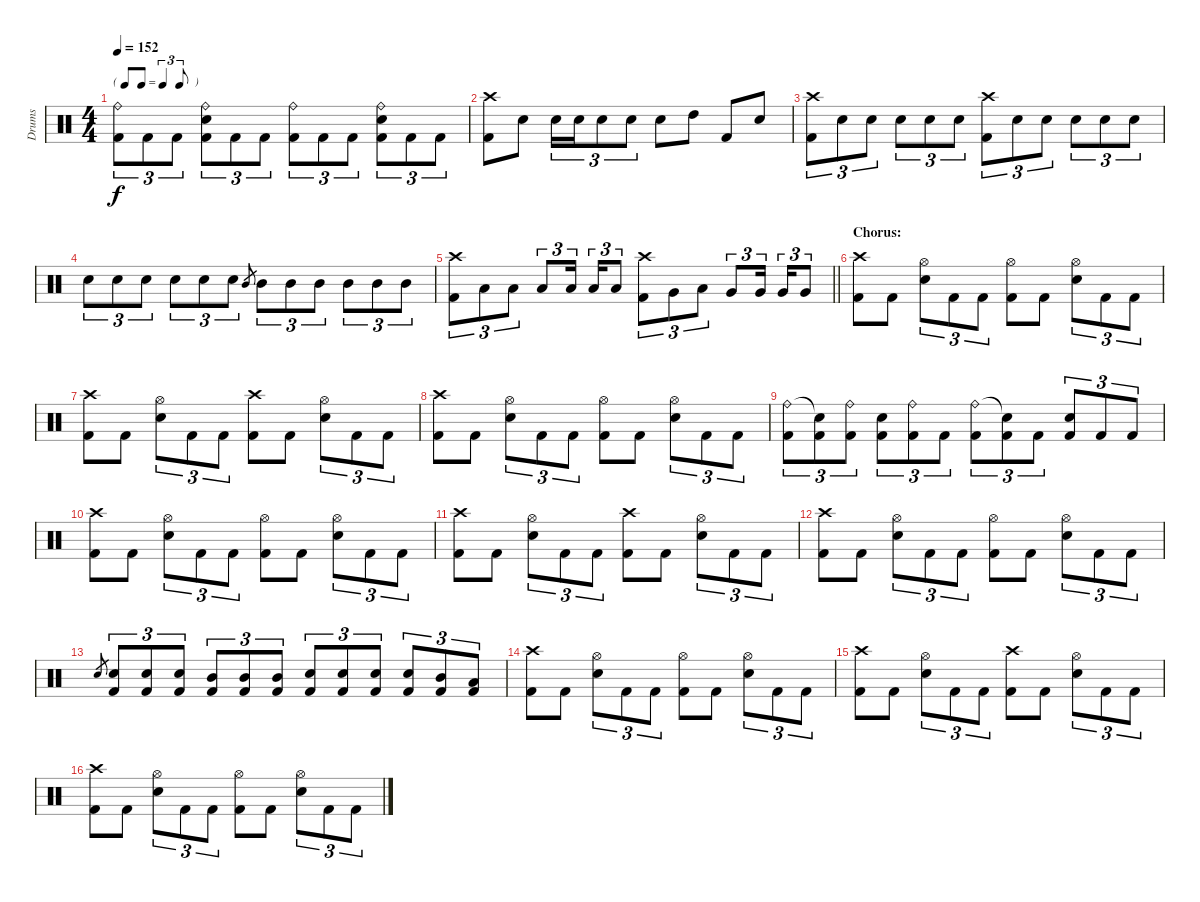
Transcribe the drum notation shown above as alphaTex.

\track ("Drums" "Drums") {instrument percussion}
\staff {score}
\articulation defaults
\ts (4 4)
\tf triplet8th
\tempo 152
\clef neutral
\ks c
("Ride (bell)" "Kick (hit) 2").8{tu (3 2) dy f} "Kick (hit) 2".8{tu (3 2)} "Kick (hit) 2".8{tu (3 2)} ("Ride (bell)" "Snare (hit) 2" "Kick (hit) 2").8{tu (3 2)} "Kick (hit) 2".8{tu (3 2)} "Kick (hit) 2".8{tu (3 2)} ("Ride (bell)" "Kick (hit) 2").8{tu (3 2)} "Kick (hit) 2".8{tu (3 2)} "Kick (hit) 2".8{tu (3 2)} ("Ride (bell)" "Snare (hit) 2" "Kick (hit) 2").8{tu (3 2)} "Kick (hit) 2".8{tu (3 2)} "Kick (hit) 2".8{tu (3 2)} |
("Crash high (hit)" "Kick (hit) 2").8 "Snare (hit) 2".8 "Snare (hit) 2".16{tu (3 2)} "Snare (hit) 2".16{tu (3 2)} "Snare (hit) 2".8{tu (3 2)} "Snare (hit) 2".8{tu (3 2)} "Snare (hit) 2".8 "High Tom (hit)".8 "Kick (hit) 2".8 "Snare (hit) 2".8 |
("Crash high (hit)" "Kick (hit) 2").8{tu (3 2)} "Snare (hit) 2".8{tu (3 2)} "Snare (hit) 2".8{tu (3 2)} "Snare (hit) 2".8{tu (3 2)} "Snare (hit) 2".8{tu (3 2)} "Snare (hit) 2".8{tu (3 2)} ("Crash high (hit)" "Kick (hit) 2").8{tu (3 2)} "Snare (hit) 2".8{tu (3 2)} "Snare (hit) 2".8{tu (3 2)} "Snare (hit) 2".8{tu (3 2)} "Snare (hit) 2".8{tu (3 2)} "Snare (hit) 2".8{tu (3 2)} |
"Snare (hit) 2".8{tu (3 2)} "Snare (hit) 2".8{tu (3 2)} "Snare (hit) 2".8{tu (3 2)} "Snare (hit) 2".8{tu (3 2)} "Snare (hit) 2".8{tu (3 2)} "Snare (hit) 2".8{tu (3 2)} "Mid Tom (hit)".8{gr} "Mid Tom (hit)".8{tu (3 2)} "Mid Tom (hit)".8{tu (3 2)} "Mid Tom (hit)".8{tu (3 2)} "Mid Tom (hit)".8{tu (3 2)} "Mid Tom (hit)".8{tu (3 2)} "Mid Tom (hit)".8{tu (3 2)} |
\barLineRight lightlight
("Crash high (hit)" "Kick (hit) 2").8{tu (3 2)} "Low Tom (hit)".8{tu (3 2)} "Low Tom (hit)".8{tu (3 2)} "Low Tom (hit)".8{tu (3 2)} "Low Tom (hit)".16{tu (3 2) beam splitsecondary} "Low Tom (hit)".16{tu (3 2)} "Low Tom (hit)".8{tu (3 2)} ("Crash high (hit)" "Kick (hit) 2").8{tu (3 2)} "Very Low Tom (hit)".8{tu (3 2)} "Low Tom (hit)".8{tu (3 2)} "Very Low Tom (hit)".8{tu (3 2)} "Very Low Tom (hit)".16{tu (3 2) beam splitsecondary} "Very Low Tom (hit)".16{tu (3 2)} "Very Low Tom (hit)".8{tu (3 2)} |
\section ("" "Chorus:")
("Crash high (hit)" "Kick (hit) 2").8 "Kick (hit) 2".8 ("Hi-Hat (open)" "Snare (hit) 2").8{tu (3 2)} "Kick (hit) 2".8{tu (3 2)} "Kick (hit) 2".8{tu (3 2)} ("Hi-Hat (open)" "Kick (hit) 2").8 "Kick (hit) 2".8 ("Hi-Hat (open)" "Snare (hit) 2").8{tu (3 2)} "Kick (hit) 2".8{tu (3 2)} "Kick (hit) 2".8{tu (3 2)} |
("Crash high (hit)" "Kick (hit) 2").8 "Kick (hit) 2".8 ("Hi-Hat (open)" "Snare (hit) 2").8{tu (3 2)} "Kick (hit) 2".8{tu (3 2)} "Kick (hit) 2".8{tu (3 2)} ("Crash high (hit)" "Kick (hit) 2").8 "Kick (hit) 2".8 ("Hi-Hat (open)" "Snare (hit) 2").8{tu (3 2)} "Kick (hit) 2".8{tu (3 2)} "Kick (hit) 2".8{tu (3 2)} |
("Crash high (hit)" "Kick (hit) 2").8 "Kick (hit) 2".8 ("Hi-Hat (open)" "Snare (hit) 2").8{tu (3 2)} "Kick (hit) 2".8{tu (3 2)} "Kick (hit) 2".8{tu (3 2)} ("Hi-Hat (open)" "Kick (hit) 2").8 "Kick (hit) 2".8 ("Hi-Hat (open)" "Snare (hit) 2").8{tu (3 2)} "Kick (hit) 2".8{tu (3 2)} "Kick (hit) 2".8{tu (3 2)} |
("Ride (bell)" "Kick (hit) 2").8{tu (3 2)} ("Snare (hit)"{t} "Kick (hit) 2").8{tu (3 2)} ("Ride (bell)" "Kick (hit) 2").8{tu (3 2)} ("Snare (hit) 2" "Kick (hit) 2").8{tu (3 2)} ("Ride (bell)" "Kick (hit) 2").8{tu (3 2)} "Kick (hit) 2".8{tu (3 2)} ("Ride (bell)" "Kick (hit) 2").8{tu (3 2)} ("Snare (hit)"{t} "Kick (hit) 2").8{tu (3 2)} "Kick (hit) 2".8{tu (3 2)} ("Snare (hit) 2" "Kick (hit) 2").8{tu (3 2)} "Kick (hit) 2".8{tu (3 2)} "Kick (hit) 2".8{tu (3 2)} |
("Crash high (hit)" "Kick (hit) 2").8 "Kick (hit) 2".8 ("Hi-Hat (open)" "Snare (hit) 2").8{tu (3 2)} "Kick (hit) 2".8{tu (3 2)} "Kick (hit) 2".8{tu (3 2)} ("Hi-Hat (open)" "Kick (hit) 2").8 "Kick (hit) 2".8 ("Hi-Hat (open)" "Snare (hit) 2").8{tu (3 2)} "Kick (hit) 2".8{tu (3 2)} "Kick (hit) 2".8{tu (3 2)} |
("Crash high (hit)" "Kick (hit) 2").8 "Kick (hit) 2".8 ("Hi-Hat (open)" "Snare (hit) 2").8{tu (3 2)} "Kick (hit) 2".8{tu (3 2)} "Kick (hit) 2".8{tu (3 2)} ("Crash high (hit)" "Kick (hit) 2").8 "Kick (hit) 2".8 ("Hi-Hat (open)" "Snare (hit) 2").8{tu (3 2)} "Kick (hit) 2".8{tu (3 2)} "Kick (hit) 2".8{tu (3 2)} |
("Crash high (hit)" "Kick (hit) 2").8 "Kick (hit) 2".8 ("Hi-Hat (open)" "Snare (hit) 2").8{tu (3 2)} "Kick (hit) 2".8{tu (3 2)} "Kick (hit) 2".8{tu (3 2)} ("Hi-Hat (open)" "Kick (hit) 2").8 "Kick (hit) 2".8 ("Hi-Hat (open)" "Snare (hit) 2").8{tu (3 2)} "Kick (hit) 2".8{tu (3 2)} "Kick (hit) 2".8{tu (3 2)} |
"Snare (hit) 2".8{gr} ("Snare (hit) 2" "Kick (hit) 2").8{tu (3 2)} ("Snare (hit) 2" "Kick (hit) 2").8{tu (3 2)} ("Snare (hit) 2" "Kick (hit) 2").8{tu (3 2)} ("Mid Tom (hit)" "Kick (hit) 2").8{tu (3 2)} ("Mid Tom (hit)" "Kick (hit) 2").8{tu (3 2)} ("Mid Tom (hit)" "Kick (hit) 2").8{tu (3 2)} ("Snare (hit) 2" "Kick (hit) 2").8{tu (3 2)} ("Snare (hit) 2" "Kick (hit) 2").8{tu (3 2)} ("Snare (hit) 2" "Kick (hit) 2").8{tu (3 2)} ("Snare (hit) 2" "Kick (hit) 2").8{tu (3 2)} ("Mid Tom (hit)" "Kick (hit) 2").8{tu (3 2)} ("Low Tom (hit)" "Kick (hit) 2").8{tu (3 2)} |
("Crash high (hit)" "Kick (hit) 2").8 "Kick (hit) 2".8 ("Hi-Hat (open)" "Snare (hit) 2").8{tu (3 2)} "Kick (hit) 2".8{tu (3 2)} "Kick (hit) 2".8{tu (3 2)} ("Hi-Hat (open)" "Kick (hit) 2").8 "Kick (hit) 2".8 ("Hi-Hat (open)" "Snare (hit) 2").8{tu (3 2)} "Kick (hit) 2".8{tu (3 2)} "Kick (hit) 2".8{tu (3 2)} |
("Crash high (hit)" "Kick (hit) 2").8 "Kick (hit) 2".8 ("Hi-Hat (open)" "Snare (hit) 2").8{tu (3 2)} "Kick (hit) 2".8{tu (3 2)} "Kick (hit) 2".8{tu (3 2)} ("Crash high (hit)" "Kick (hit) 2").8 "Kick (hit) 2".8 ("Hi-Hat (open)" "Snare (hit) 2").8{tu (3 2)} "Kick (hit) 2".8{tu (3 2)} "Kick (hit) 2".8{tu (3 2)} |
("Crash high (hit)" "Kick (hit) 2").8 "Kick (hit) 2".8 ("Hi-Hat (open)" "Snare (hit) 2").8{tu (3 2)} "Kick (hit) 2".8{tu (3 2)} "Kick (hit) 2".8{tu (3 2)} ("Hi-Hat (open)" "Kick (hit) 2").8 "Kick (hit) 2".8 ("Hi-Hat (open)" "Snare (hit) 2").8{tu (3 2)} "Kick (hit) 2".8{tu (3 2)} "Kick (hit) 2".8{tu (3 2)}
